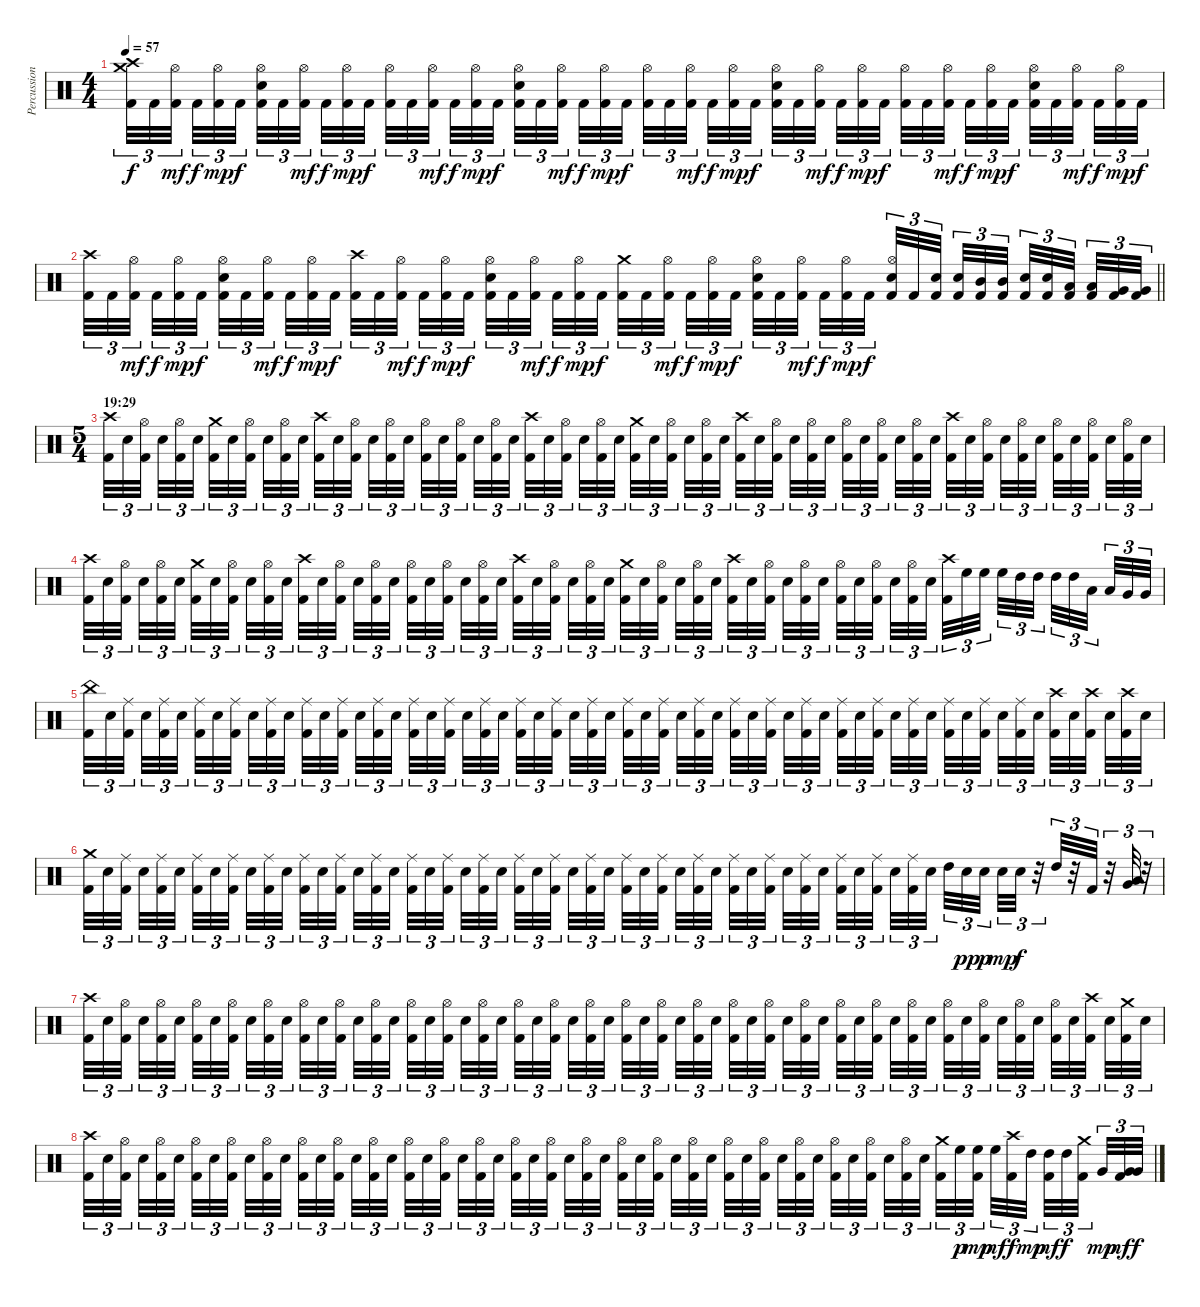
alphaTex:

\track ("Percussions" "Percussion") {instrument percussion}
\staff {score}
\articulation defaults
\ts (4 4)
\tempo 57
\clef neutral
\ks c
("Crash high (hit)" "Crash medium (hit)" "Kick (hit) 2").32{tu (3 2) dy f} "Kick (hit) 2".32{tu (3 2)} ("Hi-Hat (open)" "Kick (hit) 2").32{tu (3 2) dy mf beam splitsecondary} "Kick (hit) 2".32{tu (3 2) dy f} ("Hi-Hat (open)" "Kick (hit) 2").32{tu (3 2) dy mp} "Kick (hit) 2".32{tu (3 2) dy f beam splitsecondary} ("Hi-Hat (open)" "Snare (hit) 2" "Kick (hit) 2").32{tu (3 2)} "Kick (hit) 2".32{tu (3 2)} ("Hi-Hat (open)" "Kick (hit) 2").32{tu (3 2) dy mf beam splitsecondary} "Kick (hit) 2".32{tu (3 2) dy f} ("Hi-Hat (open)" "Kick (hit) 2").32{tu (3 2) dy mp} "Kick (hit) 2".32{tu (3 2) dy f} ("Hi-Hat (open)" "Kick (hit) 2").32{tu (3 2)} "Kick (hit) 2".32{tu (3 2)} ("Hi-Hat (open)" "Kick (hit) 2").32{tu (3 2) dy mf beam splitsecondary} "Kick (hit) 2".32{tu (3 2) dy f} ("Hi-Hat (open)" "Kick (hit) 2").32{tu (3 2) dy mp} "Kick (hit) 2".32{tu (3 2) dy f beam splitsecondary} ("Hi-Hat (open)" "Snare (hit) 2" "Kick (hit) 2").32{tu (3 2)} "Kick (hit) 2".32{tu (3 2)} ("Hi-Hat (open)" "Kick (hit) 2").32{tu (3 2) dy mf beam splitsecondary} "Kick (hit) 2".32{tu (3 2) dy f} ("Hi-Hat (open)" "Kick (hit) 2").32{tu (3 2) dy mp} "Kick (hit) 2".32{tu (3 2) dy f} ("Hi-Hat (open)" "Kick (hit) 2").32{tu (3 2)} "Kick (hit) 2".32{tu (3 2)} ("Hi-Hat (open)" "Kick (hit) 2").32{tu (3 2) dy mf beam splitsecondary} "Kick (hit) 2".32{tu (3 2) dy f} ("Hi-Hat (open)" "Kick (hit) 2").32{tu (3 2) dy mp} "Kick (hit) 2".32{tu (3 2) dy f beam splitsecondary} ("Hi-Hat (open)" "Snare (hit) 2" "Kick (hit) 2").32{tu (3 2)} "Kick (hit) 2".32{tu (3 2)} ("Hi-Hat (open)" "Kick (hit) 2").32{tu (3 2) dy mf beam splitsecondary} "Kick (hit) 2".32{tu (3 2) dy f} ("Hi-Hat (open)" "Kick (hit) 2").32{tu (3 2) dy mp} "Kick (hit) 2".32{tu (3 2) dy f} ("Hi-Hat (open)" "Kick (hit) 2").32{tu (3 2)} "Kick (hit) 2".32{tu (3 2)} ("Hi-Hat (open)" "Kick (hit) 2").32{tu (3 2) dy mf beam splitsecondary} "Kick (hit) 2".32{tu (3 2) dy f} ("Hi-Hat (open)" "Kick (hit) 2").32{tu (3 2) dy mp} "Kick (hit) 2".32{tu (3 2) dy f beam splitsecondary} ("Hi-Hat (open)" "Snare (hit) 2" "Kick (hit) 2").32{tu (3 2)} "Kick (hit) 2".32{tu (3 2)} ("Hi-Hat (open)" "Kick (hit) 2").32{tu (3 2) dy mf beam splitsecondary} "Kick (hit) 2".32{tu (3 2) dy f} ("Hi-Hat (open)" "Kick (hit) 2").32{tu (3 2) dy mp} "Kick (hit) 2".32{tu (3 2) dy f} |
\barLineRight lightlight
("Crash high (hit)" "Kick (hit) 2").32{tu (3 2)} "Kick (hit) 2".32{tu (3 2)} ("Hi-Hat (open)" "Kick (hit) 2").32{tu (3 2) dy mf beam splitsecondary} "Kick (hit) 2".32{tu (3 2) dy f} ("Hi-Hat (open)" "Kick (hit) 2").32{tu (3 2) dy mp} "Kick (hit) 2".32{tu (3 2) dy f beam splitsecondary} ("Hi-Hat (open)" "Snare (hit) 2" "Kick (hit) 2").32{tu (3 2)} "Kick (hit) 2".32{tu (3 2)} ("Hi-Hat (open)" "Kick (hit) 2").32{tu (3 2) dy mf beam splitsecondary} "Kick (hit) 2".32{tu (3 2) dy f} ("Hi-Hat (open)" "Kick (hit) 2").32{tu (3 2) dy mp} "Kick (hit) 2".32{tu (3 2) dy f} ("Crash high (hit)" "Kick (hit) 2").32{tu (3 2)} "Kick (hit) 2".32{tu (3 2)} ("Hi-Hat (open)" "Kick (hit) 2").32{tu (3 2) dy mf beam splitsecondary} "Kick (hit) 2".32{tu (3 2) dy f} ("Hi-Hat (open)" "Kick (hit) 2").32{tu (3 2) dy mp} "Kick (hit) 2".32{tu (3 2) dy f beam splitsecondary} ("Hi-Hat (open)" "Snare (hit) 2" "Kick (hit) 2").32{tu (3 2)} "Kick (hit) 2".32{tu (3 2)} ("Hi-Hat (open)" "Kick (hit) 2").32{tu (3 2) dy mf beam splitsecondary} "Kick (hit) 2".32{tu (3 2) dy f} ("Hi-Hat (open)" "Kick (hit) 2").32{tu (3 2) dy mp} "Kick (hit) 2".32{tu (3 2) dy f} ("Crash medium (hit)" "Kick (hit) 2").32{tu (3 2)} "Kick (hit) 2".32{tu (3 2)} ("Hi-Hat (open)" "Kick (hit) 2").32{tu (3 2) dy mf beam splitsecondary} "Kick (hit) 2".32{tu (3 2) dy f} ("Hi-Hat (open)" "Kick (hit) 2").32{tu (3 2) dy mp} "Kick (hit) 2".32{tu (3 2) dy f beam splitsecondary} ("Hi-Hat (open)" "Snare (hit) 2" "Kick (hit) 2").32{tu (3 2)} "Kick (hit) 2".32{tu (3 2)} ("Hi-Hat (open)" "Kick (hit) 2").32{tu (3 2) dy mf beam splitsecondary} "Kick (hit) 2".32{tu (3 2) dy f} ("Hi-Hat (open)" "Kick (hit) 2").32{tu (3 2) dy mp} "Kick (hit) 2".32{tu (3 2) dy f} ("Hi-Hat (open)" "Snare (hit) 2" "Kick (hit) 2").32{tu (3 2)} "Kick (hit) 2".32{tu (3 2)} ("Snare (hit) 2" "Kick (hit) 2").32{tu (3 2) beam splitsecondary} ("Snare (hit) 2" "Kick (hit) 2").32{tu (3 2)} ("Mid Tom (hit)" "Kick (hit) 2").32{tu (3 2)} ("Mid Tom (hit)" "Kick (hit) 2").32{tu (3 2) beam splitsecondary} ("Snare (hit) 2" "Kick (hit) 2").32{tu (3 2)} ("Snare (hit) 2" "Kick (hit) 2").32{tu (3 2)} ("Low Tom (hit)" "Kick (hit) 2").32{tu (3 2) beam splitsecondary} ("Low Tom (hit)" "Kick (hit) 2").32{tu (3 2)} ("Very Low Tom (hit)" "Kick (hit) 2").32{tu (3 2)} ("Very Low Tom (hit)" "Kick (hit) 2").32{tu (3 2)} |
\ts (5 4)
\section ("" "19:29")
("Crash high (hit)" "Kick (hit) 2").32{tu (3 2)} "Snare (hit) 2".32{tu (3 2)} ("Hi-Hat (open)" "Kick (hit) 2").32{tu (3 2) beam splitsecondary} "Snare (hit) 2".32{tu (3 2)} ("Hi-Hat (open)" "Kick (hit) 2").32{tu (3 2)} "Snare (hit) 2".32{tu (3 2) beam splitsecondary} ("Crash medium (hit)" "Kick (hit) 2").32{tu (3 2)} "Snare (hit) 2".32{tu (3 2)} ("Hi-Hat (open)" "Kick (hit) 2").32{tu (3 2) beam splitsecondary} "Snare (hit) 2".32{tu (3 2)} ("Hi-Hat (open)" "Kick (hit) 2").32{tu (3 2)} "Snare (hit) 2".32{tu (3 2)} ("Crash high (hit)" "Kick (hit) 2").32{tu (3 2)} "Snare (hit) 2".32{tu (3 2)} ("Hi-Hat (open)" "Kick (hit) 2").32{tu (3 2) beam splitsecondary} "Snare (hit) 2".32{tu (3 2)} ("Hi-Hat (open)" "Kick (hit) 2").32{tu (3 2)} "Snare (hit) 2".32{tu (3 2) beam splitsecondary} ("Hi-Hat (open)" "Kick (hit) 2").32{tu (3 2)} "Snare (hit) 2".32{tu (3 2)} ("Hi-Hat (open)" "Kick (hit) 2").32{tu (3 2) beam splitsecondary} "Snare (hit) 2".32{tu (3 2)} ("Hi-Hat (open)" "Kick (hit) 2").32{tu (3 2)} "Snare (hit) 2".32{tu (3 2)} ("Crash high (hit)" "Kick (hit) 2").32{tu (3 2)} "Snare (hit) 2".32{tu (3 2)} ("Hi-Hat (open)" "Kick (hit) 2").32{tu (3 2) beam splitsecondary} "Snare (hit) 2".32{tu (3 2)} ("Hi-Hat (open)" "Kick (hit) 2").32{tu (3 2)} "Snare (hit) 2".32{tu (3 2) beam splitsecondary} ("Crash medium (hit)" "Kick (hit) 2").32{tu (3 2)} "Snare (hit) 2".32{tu (3 2)} ("Hi-Hat (open)" "Kick (hit) 2").32{tu (3 2) beam splitsecondary} "Snare (hit) 2".32{tu (3 2)} ("Hi-Hat (open)" "Kick (hit) 2").32{tu (3 2)} "Snare (hit) 2".32{tu (3 2)} ("Crash high (hit)" "Kick (hit) 2").32{tu (3 2)} "Snare (hit) 2".32{tu (3 2)} ("Hi-Hat (open)" "Kick (hit) 2").32{tu (3 2) beam splitsecondary} "Snare (hit) 2".32{tu (3 2)} ("Hi-Hat (open)" "Kick (hit) 2").32{tu (3 2)} "Snare (hit) 2".32{tu (3 2) beam splitsecondary} ("Hi-Hat (open)" "Kick (hit) 2").32{tu (3 2)} "Snare (hit) 2".32{tu (3 2)} ("Hi-Hat (open)" "Kick (hit) 2").32{tu (3 2) beam splitsecondary} "Snare (hit) 2".32{tu (3 2)} ("Hi-Hat (open)" "Kick (hit) 2").32{tu (3 2)} "Snare (hit) 2".32{tu (3 2)} ("Crash high (hit)" "Kick (hit) 2").32{tu (3 2)} "Snare (hit) 2".32{tu (3 2)} ("Hi-Hat (open)" "Kick (hit) 2").32{tu (3 2) beam splitsecondary} "Snare (hit) 2".32{tu (3 2)} ("Hi-Hat (open)" "Kick (hit) 2").32{tu (3 2)} "Snare (hit) 2".32{tu (3 2) beam splitsecondary} ("Hi-Hat (open)" "Kick (hit) 2").32{tu (3 2)} "Snare (hit) 2".32{tu (3 2)} ("Hi-Hat (open)" "Kick (hit) 2").32{tu (3 2) beam splitsecondary} "Snare (hit) 2".32{tu (3 2)} ("Hi-Hat (open)" "Kick (hit) 2").32{tu (3 2)} "Snare (hit) 2".32{tu (3 2)} |
("Crash high (hit)" "Kick (hit) 2").32{tu (3 2)} "Snare (hit) 2".32{tu (3 2)} ("Hi-Hat (open)" "Kick (hit) 2").32{tu (3 2) beam splitsecondary} "Snare (hit) 2".32{tu (3 2)} ("Hi-Hat (open)" "Kick (hit) 2").32{tu (3 2)} "Snare (hit) 2".32{tu (3 2) beam splitsecondary} ("Crash medium (hit)" "Kick (hit) 2").32{tu (3 2)} "Snare (hit) 2".32{tu (3 2)} ("Hi-Hat (open)" "Kick (hit) 2").32{tu (3 2) beam splitsecondary} "Snare (hit) 2".32{tu (3 2)} ("Hi-Hat (open)" "Kick (hit) 2").32{tu (3 2)} "Snare (hit) 2".32{tu (3 2)} ("Crash high (hit)" "Kick (hit) 2").32{tu (3 2)} "Snare (hit) 2".32{tu (3 2)} ("Hi-Hat (open)" "Kick (hit) 2").32{tu (3 2) beam splitsecondary} "Snare (hit) 2".32{tu (3 2)} ("Hi-Hat (open)" "Kick (hit) 2").32{tu (3 2)} "Snare (hit) 2".32{tu (3 2) beam splitsecondary} ("Hi-Hat (open)" "Kick (hit) 2").32{tu (3 2)} "Snare (hit) 2".32{tu (3 2)} ("Hi-Hat (open)" "Kick (hit) 2").32{tu (3 2) beam splitsecondary} "Snare (hit) 2".32{tu (3 2)} ("Hi-Hat (open)" "Kick (hit) 2").32{tu (3 2)} "Snare (hit) 2".32{tu (3 2)} ("Crash high (hit)" "Kick (hit) 2").32{tu (3 2)} "Snare (hit) 2".32{tu (3 2)} ("Hi-Hat (open)" "Kick (hit) 2").32{tu (3 2) beam splitsecondary} "Snare (hit) 2".32{tu (3 2)} ("Hi-Hat (open)" "Kick (hit) 2").32{tu (3 2)} "Snare (hit) 2".32{tu (3 2) beam splitsecondary} ("Crash medium (hit)" "Kick (hit) 2").32{tu (3 2)} "Snare (hit) 2".32{tu (3 2)} ("Hi-Hat (open)" "Kick (hit) 2").32{tu (3 2) beam splitsecondary} "Snare (hit) 2".32{tu (3 2)} ("Hi-Hat (open)" "Kick (hit) 2").32{tu (3 2)} "Snare (hit) 2".32{tu (3 2)} ("Crash high (hit)" "Kick (hit) 2").32{tu (3 2)} "Snare (hit) 2".32{tu (3 2)} ("Hi-Hat (open)" "Kick (hit) 2").32{tu (3 2) beam splitsecondary} "Snare (hit) 2".32{tu (3 2)} ("Hi-Hat (open)" "Kick (hit) 2").32{tu (3 2)} "Snare (hit) 2".32{tu (3 2) beam splitsecondary} ("Hi-Hat (open)" "Kick (hit) 2").32{tu (3 2)} "Snare (hit) 2".32{tu (3 2)} ("Hi-Hat (open)" "Kick (hit) 2").32{tu (3 2) beam splitsecondary} "Snare (hit) 2".32{tu (3 2)} ("Hi-Hat (open)" "Kick (hit) 2").32{tu (3 2)} "Snare (hit) 2".32{tu (3 2)} ("Crash high (hit)" "Kick (hit) 2").32{tu (3 2)} "High Floor Tom (hit)".32{tu (3 2)} "High Floor Tom (hit)".32{tu (3 2) beam splitsecondary} "High Floor Tom (hit)".32{tu (3 2)} "High Tom (hit)".32{tu (3 2)} "High Tom (hit)".32{tu (3 2) beam splitsecondary} "High Tom (hit)".32{tu (3 2)} "High Tom (hit)".32{tu (3 2)} "Low Tom (hit)".32{tu (3 2) beam splitsecondary} "Low Tom (hit)".32{tu (3 2)} "Very Low Tom (hit)".32{tu (3 2)} "Very Low Tom (hit)".32{tu (3 2)} |
("China (hit)" "Kick (hit) 2").32{tu (3 2)} "Snare (hit) 2".32{tu (3 2)} ("Ride (middle)" "Kick (hit) 2").32{tu (3 2) beam splitsecondary} "Snare (hit) 2".32{tu (3 2)} ("Ride (middle)" "Kick (hit) 2").32{tu (3 2)} "Snare (hit) 2".32{tu (3 2) beam splitsecondary} ("Ride (middle)" "Kick (hit) 2").32{tu (3 2)} "Snare (hit) 2".32{tu (3 2)} ("Ride (middle)" "Kick (hit) 2").32{tu (3 2) beam splitsecondary} "Snare (hit) 2".32{tu (3 2)} ("Ride (middle)" "Kick (hit) 2").32{tu (3 2)} "Snare (hit) 2".32{tu (3 2)} ("Ride (middle)" "Kick (hit) 2").32{tu (3 2)} "Snare (hit) 2".32{tu (3 2)} ("Ride (middle)" "Kick (hit) 2").32{tu (3 2) beam splitsecondary} "Snare (hit) 2".32{tu (3 2)} ("Ride (middle)" "Kick (hit) 2").32{tu (3 2)} "Snare (hit) 2".32{tu (3 2) beam splitsecondary} ("Ride (middle)" "Kick (hit) 2").32{tu (3 2)} "Snare (hit) 2".32{tu (3 2)} ("Ride (middle)" "Kick (hit) 2").32{tu (3 2) beam splitsecondary} "Snare (hit) 2".32{tu (3 2)} ("Ride (middle)" "Kick (hit) 2").32{tu (3 2)} "Snare (hit) 2".32{tu (3 2)} ("Ride (middle)" "Kick (hit) 2").32{tu (3 2)} "Snare (hit) 2".32{tu (3 2)} ("Ride (middle)" "Kick (hit) 2").32{tu (3 2) beam splitsecondary} "Snare (hit) 2".32{tu (3 2)} ("Ride (middle)" "Kick (hit) 2").32{tu (3 2)} "Snare (hit) 2".32{tu (3 2) beam splitsecondary} ("Ride (middle)" "Kick (hit) 2").32{tu (3 2)} "Snare (hit) 2".32{tu (3 2)} ("Ride (middle)" "Kick (hit) 2").32{tu (3 2) beam splitsecondary} "Snare (hit) 2".32{tu (3 2)} ("Ride (middle)" "Kick (hit) 2").32{tu (3 2)} "Snare (hit) 2".32{tu (3 2)} ("Ride (middle)" "Kick (hit) 2").32{tu (3 2)} "Snare (hit) 2".32{tu (3 2)} ("Ride (middle)" "Kick (hit) 2").32{tu (3 2) beam splitsecondary} "Snare (hit) 2".32{tu (3 2)} ("Ride (middle)" "Kick (hit) 2").32{tu (3 2)} "Snare (hit) 2".32{tu (3 2) beam splitsecondary} ("Ride (middle)" "Kick (hit) 2").32{tu (3 2)} "Snare (hit) 2".32{tu (3 2)} ("Ride (middle)" "Kick (hit) 2").32{tu (3 2) beam splitsecondary} "Snare (hit) 2".32{tu (3 2)} ("Ride (middle)" "Kick (hit) 2").32{tu (3 2)} "Snare (hit) 2".32{tu (3 2)} ("Ride (middle)" "Kick (hit) 2").32{tu (3 2)} "Snare (hit) 2".32{tu (3 2)} ("Ride (middle)" "Kick (hit) 2").32{tu (3 2) beam splitsecondary} "Snare (hit) 2".32{tu (3 2)} ("Ride (middle)" "Kick (hit) 2").32{tu (3 2)} "Snare (hit) 2".32{tu (3 2) beam splitsecondary} ("Crash high (hit)" "Kick (hit) 2").32{tu (3 2)} "Snare (hit) 2".32{tu (3 2)} ("Crash high (hit)" "Kick (hit) 2").32{tu (3 2) beam splitsecondary} "Snare (hit) 2".32{tu (3 2)} ("Crash high (hit)" "Kick (hit) 2").32{tu (3 2)} "Snare (hit) 2".32{tu (3 2)} |
("Crash medium (hit)" "Kick (hit) 2").32{tu (3 2)} "Snare (hit) 2".32{tu (3 2)} ("Ride (middle)" "Kick (hit) 2").32{tu (3 2) beam splitsecondary} "Snare (hit) 2".32{tu (3 2)} ("Ride (middle)" "Kick (hit) 2").32{tu (3 2)} "Snare (hit) 2".32{tu (3 2) beam splitsecondary} ("Ride (middle)" "Kick (hit) 2").32{tu (3 2)} "Snare (hit) 2".32{tu (3 2)} ("Ride (middle)" "Kick (hit) 2").32{tu (3 2) beam splitsecondary} "Snare (hit) 2".32{tu (3 2)} ("Ride (middle)" "Kick (hit) 2").32{tu (3 2)} "Snare (hit) 2".32{tu (3 2)} ("Ride (middle)" "Kick (hit) 2").32{tu (3 2)} "Snare (hit) 2".32{tu (3 2)} ("Ride (middle)" "Kick (hit) 2").32{tu (3 2) beam splitsecondary} "Snare (hit) 2".32{tu (3 2)} ("Ride (middle)" "Kick (hit) 2").32{tu (3 2)} "Snare (hit) 2".32{tu (3 2) beam splitsecondary} ("Ride (middle)" "Kick (hit) 2").32{tu (3 2)} "Snare (hit) 2".32{tu (3 2)} ("Ride (middle)" "Kick (hit) 2").32{tu (3 2) beam splitsecondary} "Snare (hit) 2".32{tu (3 2)} ("Ride (middle)" "Kick (hit) 2").32{tu (3 2)} "Snare (hit) 2".32{tu (3 2)} ("Ride (middle)" "Kick (hit) 2").32{tu (3 2)} "Snare (hit) 2".32{tu (3 2)} ("Ride (middle)" "Kick (hit) 2").32{tu (3 2) beam splitsecondary} "Snare (hit) 2".32{tu (3 2)} ("Ride (middle)" "Kick (hit) 2").32{tu (3 2)} "Snare (hit) 2".32{tu (3 2) beam splitsecondary} ("Ride (middle)" "Kick (hit) 2").32{tu (3 2)} "Snare (hit) 2".32{tu (3 2)} ("Ride (middle)" "Kick (hit) 2").32{tu (3 2) beam splitsecondary} "Snare (hit) 2".32{tu (3 2)} ("Ride (middle)" "Kick (hit) 2").32{tu (3 2)} "Snare (hit) 2".32{tu (3 2)} ("Ride (middle)" "Kick (hit) 2").32{tu (3 2)} "Snare (hit) 2".32{tu (3 2)} ("Ride (middle)" "Kick (hit) 2").32{tu (3 2) beam splitsecondary} "Snare (hit) 2".32{tu (3 2)} ("Ride (middle)" "Kick (hit) 2").32{tu (3 2)} "Snare (hit) 2".32{tu (3 2) beam splitsecondary} ("Ride (middle)" "Kick (hit) 2").32{tu (3 2)} "Snare (hit) 2".32{tu (3 2)} ("Ride (middle)" "Kick (hit) 2").32{tu (3 2) beam splitsecondary} "Snare (hit) 2".32{tu (3 2)} ("Ride (middle)" "Kick (hit) 2").32{tu (3 2)} "Snare (hit) 2".32{tu (3 2)} "High Tom (hit)".32{tu (3 2)} "Snare (hit) 2".32{tu (3 2) dy pp} "Snare (hit) 2".32{tu (3 2) dy p beam splitsecondary} "Snare (hit) 2".32{tu (3 2) dy mp} "Snare (hit) 2".32{tu (3 2) dy f} r.32{tu (3 2)} "High Tom (hit)".32{tu (3 2)} r.32{tu (3 2)} "Kick (hit) 2".32{tu (3 2)} r.32{tu (3 2)} ("Low Tom (hit)" "Very Low Tom (hit)").32{tu (3 2)} r.32{tu (3 2)} |
("Crash high (hit)" "Kick (hit) 2").32{tu (3 2)} "Snare (hit) 2".32{tu (3 2)} ("Hi-Hat (open)" "Kick (hit) 2").32{tu (3 2) beam splitsecondary} "Snare (hit) 2".32{tu (3 2)} ("Hi-Hat (open)" "Kick (hit) 2").32{tu (3 2)} "Snare (hit) 2".32{tu (3 2) beam splitsecondary} ("Hi-Hat (open)" "Kick (hit) 2").32{tu (3 2)} "Snare (hit) 2".32{tu (3 2)} ("Hi-Hat (open)" "Kick (hit) 2").32{tu (3 2) beam splitsecondary} "Snare (hit) 2".32{tu (3 2)} ("Hi-Hat (open)" "Kick (hit) 2").32{tu (3 2)} "Snare (hit) 2".32{tu (3 2)} ("Hi-Hat (open)" "Kick (hit) 2").32{tu (3 2)} "Snare (hit) 2".32{tu (3 2)} ("Hi-Hat (open)" "Kick (hit) 2").32{tu (3 2) beam splitsecondary} "Snare (hit) 2".32{tu (3 2)} ("Hi-Hat (open)" "Kick (hit) 2").32{tu (3 2)} "Snare (hit) 2".32{tu (3 2) beam splitsecondary} ("Hi-Hat (open)" "Kick (hit) 2").32{tu (3 2)} "Snare (hit) 2".32{tu (3 2)} ("Hi-Hat (open)" "Kick (hit) 2").32{tu (3 2) beam splitsecondary} "Snare (hit) 2".32{tu (3 2)} ("Hi-Hat (open)" "Kick (hit) 2").32{tu (3 2)} "Snare (hit) 2".32{tu (3 2)} ("Hi-Hat (open)" "Kick (hit) 2").32{tu (3 2)} "Snare (hit) 2".32{tu (3 2)} ("Hi-Hat (open)" "Kick (hit) 2").32{tu (3 2) beam splitsecondary} "Snare (hit) 2".32{tu (3 2)} ("Hi-Hat (open)" "Kick (hit) 2").32{tu (3 2)} "Snare (hit) 2".32{tu (3 2) beam splitsecondary} ("Hi-Hat (open)" "Kick (hit) 2").32{tu (3 2)} "Snare (hit) 2".32{tu (3 2)} ("Hi-Hat (open)" "Kick (hit) 2").32{tu (3 2) beam splitsecondary} "Snare (hit) 2".32{tu (3 2)} ("Hi-Hat (open)" "Kick (hit) 2").32{tu (3 2)} "Snare (hit) 2".32{tu (3 2)} ("Hi-Hat (open)" "Kick (hit) 2").32{tu (3 2)} "Snare (hit) 2".32{tu (3 2)} ("Hi-Hat (open)" "Kick (hit) 2").32{tu (3 2) beam splitsecondary} "Snare (hit) 2".32{tu (3 2)} ("Hi-Hat (open)" "Kick (hit) 2").32{tu (3 2)} "Snare (hit) 2".32{tu (3 2) beam splitsecondary} ("Hi-Hat (open)" "Kick (hit) 2").32{tu (3 2)} "Snare (hit) 2".32{tu (3 2)} ("Hi-Hat (open)" "Kick (hit) 2").32{tu (3 2) beam splitsecondary} "Snare (hit) 2".32{tu (3 2)} ("Hi-Hat (open)" "Kick (hit) 2").32{tu (3 2)} "Snare (hit) 2".32{tu (3 2)} ("Hi-Hat (open)" "Kick (hit) 2").32{tu (3 2)} "Snare (hit) 2".32{tu (3 2)} ("Hi-Hat (open)" "Kick (hit) 2").32{tu (3 2) beam splitsecondary} "Snare (hit) 2".32{tu (3 2)} ("Hi-Hat (open)" "Kick (hit) 2").32{tu (3 2)} "Snare (hit) 2".32{tu (3 2) beam splitsecondary} ("Hi-Hat (open)" "Kick (hit) 2").32{tu (3 2)} "Snare (hit) 2".32{tu (3 2)} ("Crash high (hit)" "Kick (hit) 2").32{tu (3 2) beam splitsecondary} "Snare (hit) 2".32{tu (3 2)} ("Crash medium (hit)" "Kick (hit) 2").32{tu (3 2)} "Snare (hit) 2".32{tu (3 2)} |
("Crash high (hit)" "Kick (hit) 2").32{tu (3 2)} "Snare (hit) 2".32{tu (3 2)} ("Hi-Hat (open)" "Kick (hit) 2").32{tu (3 2) beam splitsecondary} "Snare (hit) 2".32{tu (3 2)} ("Hi-Hat (open)" "Kick (hit) 2").32{tu (3 2)} "Snare (hit) 2".32{tu (3 2) beam splitsecondary} ("Hi-Hat (open)" "Kick (hit) 2").32{tu (3 2)} "Snare (hit) 2".32{tu (3 2)} ("Hi-Hat (open)" "Kick (hit) 2").32{tu (3 2) beam splitsecondary} "Snare (hit) 2".32{tu (3 2)} ("Hi-Hat (open)" "Kick (hit) 2").32{tu (3 2)} "Snare (hit) 2".32{tu (3 2)} ("Hi-Hat (open)" "Kick (hit) 2").32{tu (3 2)} "Snare (hit) 2".32{tu (3 2)} ("Hi-Hat (open)" "Kick (hit) 2").32{tu (3 2) beam splitsecondary} "Snare (hit) 2".32{tu (3 2)} ("Hi-Hat (open)" "Kick (hit) 2").32{tu (3 2)} "Snare (hit) 2".32{tu (3 2) beam splitsecondary} ("Hi-Hat (open)" "Kick (hit) 2").32{tu (3 2)} "Snare (hit) 2".32{tu (3 2)} ("Hi-Hat (open)" "Kick (hit) 2").32{tu (3 2) beam splitsecondary} "Snare (hit) 2".32{tu (3 2)} ("Hi-Hat (open)" "Kick (hit) 2").32{tu (3 2)} "Snare (hit) 2".32{tu (3 2)} ("Hi-Hat (open)" "Kick (hit) 2").32{tu (3 2)} "Snare (hit) 2".32{tu (3 2)} ("Hi-Hat (open)" "Kick (hit) 2").32{tu (3 2) beam splitsecondary} "Snare (hit) 2".32{tu (3 2)} ("Hi-Hat (open)" "Kick (hit) 2").32{tu (3 2)} "Snare (hit) 2".32{tu (3 2) beam splitsecondary} ("Hi-Hat (open)" "Kick (hit) 2").32{tu (3 2)} "Snare (hit) 2".32{tu (3 2)} ("Hi-Hat (open)" "Kick (hit) 2").32{tu (3 2) beam splitsecondary} "Snare (hit) 2".32{tu (3 2)} ("Hi-Hat (open)" "Kick (hit) 2").32{tu (3 2)} "Snare (hit) 2".32{tu (3 2)} ("Hi-Hat (open)" "Kick (hit) 2").32{tu (3 2)} "Snare (hit) 2".32{tu (3 2)} ("Hi-Hat (open)" "Kick (hit) 2").32{tu (3 2) beam splitsecondary} "Snare (hit) 2".32{tu (3 2)} ("Hi-Hat (open)" "Kick (hit) 2").32{tu (3 2)} "Snare (hit) 2".32{tu (3 2) beam splitsecondary} ("Hi-Hat (open)" "Kick (hit) 2").32{tu (3 2)} "Snare (hit) 2".32{tu (3 2)} ("Hi-Hat (open)" "Kick (hit) 2").32{tu (3 2) beam splitsecondary} "Snare (hit) 2".32{tu (3 2)} ("Hi-Hat (open)" "Kick (hit) 2").32{tu (3 2)} "Snare (hit) 2".32{tu (3 2)} ("Crash medium (hit)" "Kick (hit) 2").32{tu (3 2)} "High Floor Tom (hit)".32{tu (3 2) dy p} ("High Floor Tom (hit)" "Kick (hit) 2").32{tu (3 2) dy mp beam splitsecondary} "High Floor Tom (hit)".32{tu (3 2) dy mf} ("Crash high (hit)" "Kick (hit) 2").32{tu (3 2) dy f} "High Tom (hit)".32{tu (3 2) dy mp beam splitsecondary} ("High Tom (hit)" "Kick (hit) 2").32{tu (3 2) dy mf} "High Tom (hit)".32{tu (3 2) dy f} ("Crash medium (hit)" "Kick (hit) 2").32{tu (3 2) beam splitsecondary} "Very Low Tom (hit)".32{tu (3 2) dy mp} ("Very Low Tom (hit)" "Kick (hit) 2").32{tu (3 2) dy mf} "Very Low Tom (hit)".32{tu (3 2) dy f}
